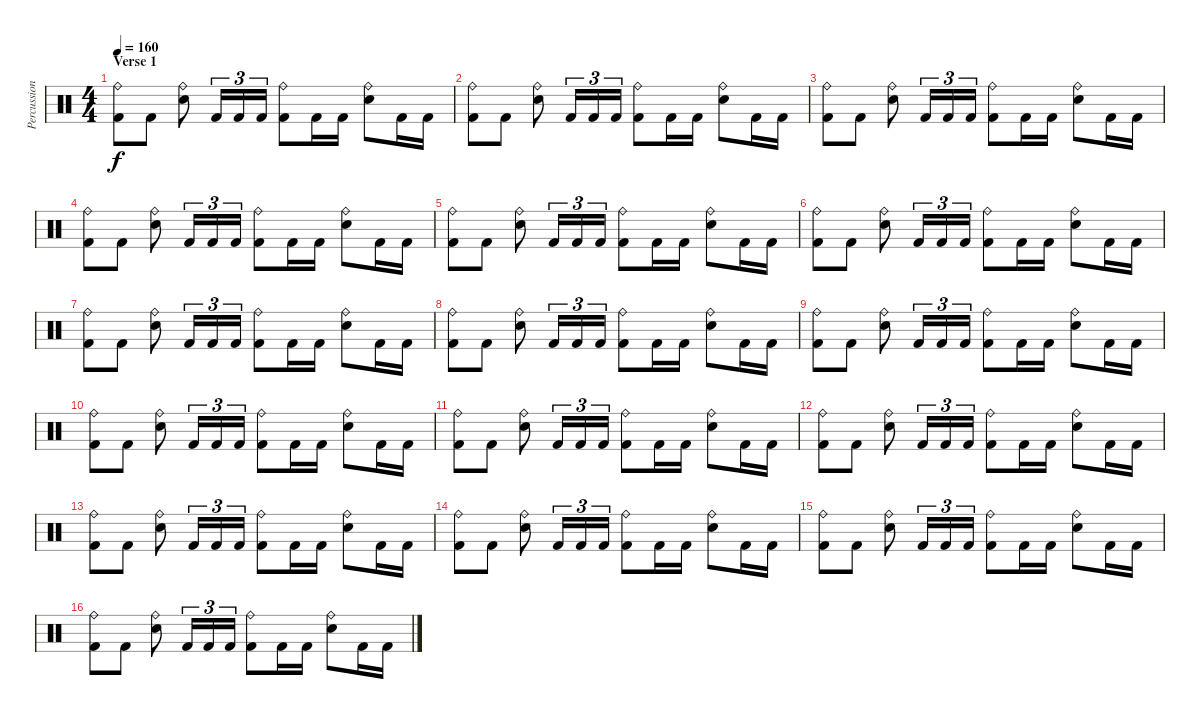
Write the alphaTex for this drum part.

\track ("Percussion" "Percussion") {instrument percussion}
\staff {score}
\articulation defaults
\ts (4 4)
\section ("" "Verse 1")
\tempo 160
\clef neutral
\ks c
("Kick (hit) 2" "Ride (bell)").8{dy f} "Kick (hit) 2".8 ("Electric Snare (hit)" "Ride (bell)").8 "Kick (hit) 2".16{tu (3 2)} "Kick (hit) 2".16{tu (3 2)} "Kick (hit) 2".16{tu (3 2)} ("Kick (hit) 2" "Ride (bell)").8 "Kick (hit) 2".16 "Kick (hit) 2".16 ("Electric Snare (hit)" "Ride (bell)").8 "Kick (hit) 2".16 "Kick (hit) 2".16 |
("Kick (hit) 2" "Ride (bell)").8 "Kick (hit) 2".8 ("Electric Snare (hit)" "Ride (bell)").8 "Kick (hit) 2".16{tu (3 2)} "Kick (hit) 2".16{tu (3 2)} "Kick (hit) 2".16{tu (3 2)} ("Kick (hit) 2" "Ride (bell)").8 "Kick (hit) 2".16 "Kick (hit) 2".16 ("Electric Snare (hit)" "Ride (bell)").8 "Kick (hit) 2".16 "Kick (hit) 2".16 |
("Kick (hit) 2" "Ride (bell)").8 "Kick (hit) 2".8 ("Electric Snare (hit)" "Ride (bell)").8 "Kick (hit) 2".16{tu (3 2)} "Kick (hit) 2".16{tu (3 2)} "Kick (hit) 2".16{tu (3 2)} ("Kick (hit) 2" "Ride (bell)").8 "Kick (hit) 2".16 "Kick (hit) 2".16 ("Electric Snare (hit)" "Ride (bell)").8 "Kick (hit) 2".16 "Kick (hit) 2".16 |
("Kick (hit) 2" "Ride (bell)").8 "Kick (hit) 2".8 ("Electric Snare (hit)" "Ride (bell)").8 "Kick (hit) 2".16{tu (3 2)} "Kick (hit) 2".16{tu (3 2)} "Kick (hit) 2".16{tu (3 2)} ("Kick (hit) 2" "Ride (bell)").8 "Kick (hit) 2".16 "Kick (hit) 2".16 ("Electric Snare (hit)" "Ride (bell)").8 "Kick (hit) 2".16 "Kick (hit) 2".16 |
("Kick (hit) 2" "Ride (bell)").8 "Kick (hit) 2".8 ("Electric Snare (hit)" "Ride (bell)").8 "Kick (hit) 2".16{tu (3 2)} "Kick (hit) 2".16{tu (3 2)} "Kick (hit) 2".16{tu (3 2)} ("Kick (hit) 2" "Ride (bell)").8 "Kick (hit) 2".16 "Kick (hit) 2".16 ("Electric Snare (hit)" "Ride (bell)").8 "Kick (hit) 2".16 "Kick (hit) 2".16 |
("Kick (hit) 2" "Ride (bell)").8 "Kick (hit) 2".8 ("Electric Snare (hit)" "Ride (bell)").8 "Kick (hit) 2".16{tu (3 2)} "Kick (hit) 2".16{tu (3 2)} "Kick (hit) 2".16{tu (3 2)} ("Kick (hit) 2" "Ride (bell)").8 "Kick (hit) 2".16 "Kick (hit) 2".16 ("Electric Snare (hit)" "Ride (bell)").8 "Kick (hit) 2".16 "Kick (hit) 2".16 |
("Kick (hit) 2" "Ride (bell)").8 "Kick (hit) 2".8 ("Electric Snare (hit)" "Ride (bell)").8 "Kick (hit) 2".16{tu (3 2)} "Kick (hit) 2".16{tu (3 2)} "Kick (hit) 2".16{tu (3 2)} ("Kick (hit) 2" "Ride (bell)").8 "Kick (hit) 2".16 "Kick (hit) 2".16 ("Electric Snare (hit)" "Ride (bell)").8 "Kick (hit) 2".16 "Kick (hit) 2".16 |
("Kick (hit) 2" "Ride (bell)").8 "Kick (hit) 2".8 ("Electric Snare (hit)" "Ride (bell)").8 "Kick (hit) 2".16{tu (3 2)} "Kick (hit) 2".16{tu (3 2)} "Kick (hit) 2".16{tu (3 2)} ("Kick (hit) 2" "Ride (bell)").8 "Kick (hit) 2".16 "Kick (hit) 2".16 ("Electric Snare (hit)" "Ride (bell)").8 "Kick (hit) 2".16 "Kick (hit) 2".16 |
("Kick (hit) 2" "Ride (bell)").8 "Kick (hit) 2".8 ("Electric Snare (hit)" "Ride (bell)").8 "Kick (hit) 2".16{tu (3 2)} "Kick (hit) 2".16{tu (3 2)} "Kick (hit) 2".16{tu (3 2)} ("Kick (hit) 2" "Ride (bell)").8 "Kick (hit) 2".16 "Kick (hit) 2".16 ("Electric Snare (hit)" "Ride (bell)").8 "Kick (hit) 2".16 "Kick (hit) 2".16 |
("Kick (hit) 2" "Ride (bell)").8 "Kick (hit) 2".8 ("Electric Snare (hit)" "Ride (bell)").8 "Kick (hit) 2".16{tu (3 2)} "Kick (hit) 2".16{tu (3 2)} "Kick (hit) 2".16{tu (3 2)} ("Kick (hit) 2" "Ride (bell)").8 "Kick (hit) 2".16 "Kick (hit) 2".16 ("Electric Snare (hit)" "Ride (bell)").8 "Kick (hit) 2".16 "Kick (hit) 2".16 |
("Kick (hit) 2" "Ride (bell)").8 "Kick (hit) 2".8 ("Electric Snare (hit)" "Ride (bell)").8 "Kick (hit) 2".16{tu (3 2)} "Kick (hit) 2".16{tu (3 2)} "Kick (hit) 2".16{tu (3 2)} ("Kick (hit) 2" "Ride (bell)").8 "Kick (hit) 2".16 "Kick (hit) 2".16 ("Electric Snare (hit)" "Ride (bell)").8 "Kick (hit) 2".16 "Kick (hit) 2".16 |
("Kick (hit) 2" "Ride (bell)").8 "Kick (hit) 2".8 ("Electric Snare (hit)" "Ride (bell)").8 "Kick (hit) 2".16{tu (3 2)} "Kick (hit) 2".16{tu (3 2)} "Kick (hit) 2".16{tu (3 2)} ("Kick (hit) 2" "Ride (bell)").8 "Kick (hit) 2".16 "Kick (hit) 2".16 ("Electric Snare (hit)" "Ride (bell)").8 "Kick (hit) 2".16 "Kick (hit) 2".16 |
("Kick (hit) 2" "Ride (bell)").8 "Kick (hit) 2".8 ("Electric Snare (hit)" "Ride (bell)").8 "Kick (hit) 2".16{tu (3 2)} "Kick (hit) 2".16{tu (3 2)} "Kick (hit) 2".16{tu (3 2)} ("Kick (hit) 2" "Ride (bell)").8 "Kick (hit) 2".16 "Kick (hit) 2".16 ("Electric Snare (hit)" "Ride (bell)").8 "Kick (hit) 2".16 "Kick (hit) 2".16 |
("Kick (hit) 2" "Ride (bell)").8 "Kick (hit) 2".8 ("Electric Snare (hit)" "Ride (bell)").8 "Kick (hit) 2".16{tu (3 2)} "Kick (hit) 2".16{tu (3 2)} "Kick (hit) 2".16{tu (3 2)} ("Kick (hit) 2" "Ride (bell)").8 "Kick (hit) 2".16 "Kick (hit) 2".16 ("Electric Snare (hit)" "Ride (bell)").8 "Kick (hit) 2".16 "Kick (hit) 2".16 |
("Kick (hit) 2" "Ride (bell)").8 "Kick (hit) 2".8 ("Electric Snare (hit)" "Ride (bell)").8 "Kick (hit) 2".16{tu (3 2)} "Kick (hit) 2".16{tu (3 2)} "Kick (hit) 2".16{tu (3 2)} ("Kick (hit) 2" "Ride (bell)").8 "Kick (hit) 2".16 "Kick (hit) 2".16 ("Electric Snare (hit)" "Ride (bell)").8 "Kick (hit) 2".16 "Kick (hit) 2".16 |
("Kick (hit) 2" "Ride (bell)").8 "Kick (hit) 2".8 ("Electric Snare (hit)" "Ride (bell)").8 "Kick (hit) 2".16{tu (3 2)} "Kick (hit) 2".16{tu (3 2)} "Kick (hit) 2".16{tu (3 2)} ("Kick (hit) 2" "Ride (bell)").8 "Kick (hit) 2".16 "Kick (hit) 2".16 ("Electric Snare (hit)" "Ride (bell)").8 "Kick (hit) 2".16 "Kick (hit) 2".16
